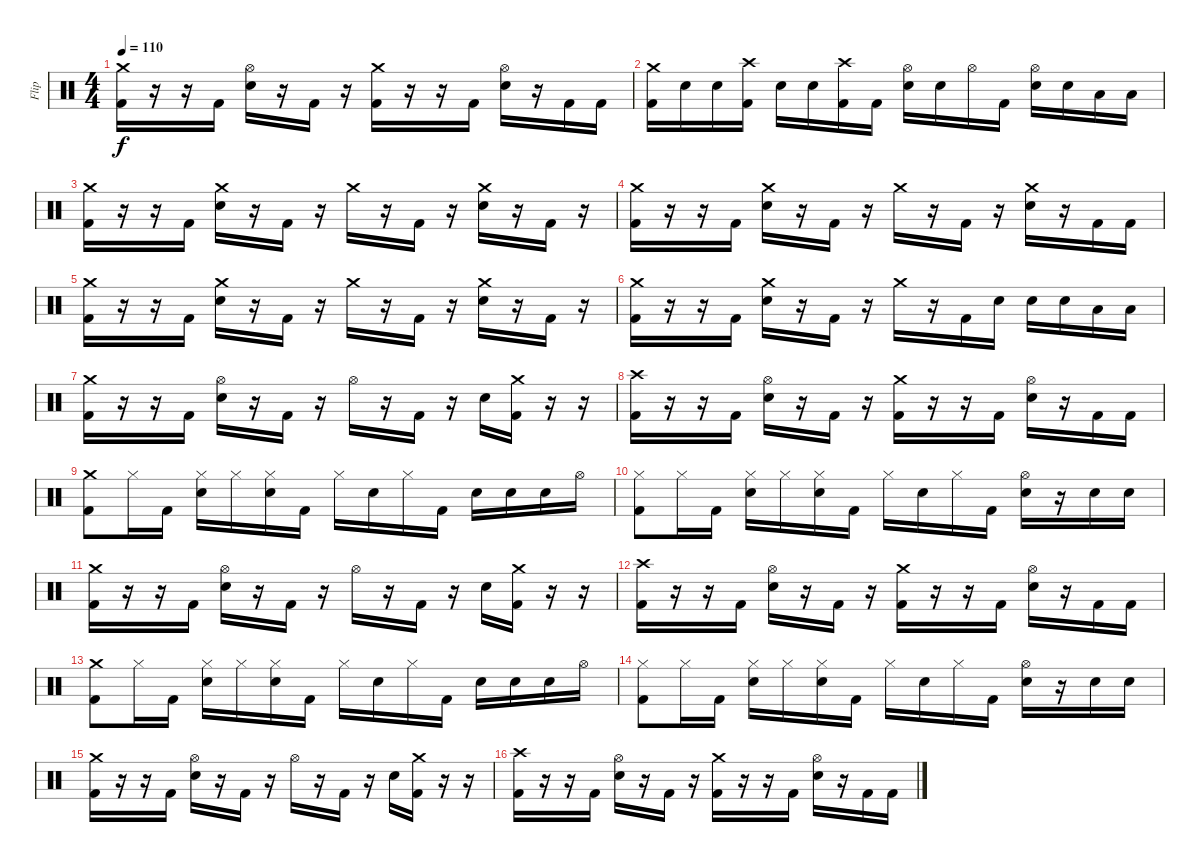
\track ("Flip" "Flip") {instrument percussion}
\staff {score}
\articulation defaults
\ts (4 4)
\tempo 110
\clef neutral
\ks c
("Crash medium (hit)" "Kick (hit) 2").16{dy f} r.16 r.16 "Kick (hit) 2".16 ("Hi-Hat (open)" "Snare (hit) 2").16 r.16 "Kick (hit) 2".16 r.16 ("Crash medium (hit)" "Kick (hit) 2").16 r.16 r.16 "Kick (hit) 2".16 ("Hi-Hat (open)" "Snare (hit) 2").16 r.16 "Kick (hit) 2".16 "Kick (hit) 2".16 |
("Crash medium (hit)" "Kick (hit) 2").16 "Snare (hit) 2".16 "Snare (hit) 2".16 ("Crash high (hit)" "Kick (hit) 2").16 "Snare (hit) 2".16 "Snare (hit) 2".16 ("Crash high (hit)" "Kick (hit) 2").16 "Kick (hit) 2".16 ("Hi-Hat (open)" "Snare (hit) 2").16 "Snare (hit) 2".16 "Hi-Hat (open)".16 "Kick (hit) 2".16 ("Hi-Hat (open)" "Snare (hit) 2").16 "Snare (hit) 2".16 "Low Tom (hit)".16 "Low Tom (hit)".16 |
("Crash medium (hit)" "Kick (hit) 2").16 r.16 r.16 "Kick (hit) 2".16 ("Crash medium (hit)" "Snare (hit) 2").16 r.16 "Kick (hit) 2".16 r.16 "Crash medium (hit)".16 r.16 "Kick (hit) 2".16 r.16 ("Crash medium (hit)" "Snare (hit) 2").16 r.16 "Kick (hit) 2".16 r.16 |
("Crash medium (hit)" "Kick (hit) 2").16 r.16 r.16 "Kick (hit) 2".16 ("Crash medium (hit)" "Snare (hit) 2").16 r.16 "Kick (hit) 2".16 r.16 "Crash medium (hit)".16 r.16 "Kick (hit) 2".16 r.16 ("Crash medium (hit)" "Snare (hit) 2").16 r.16 "Kick (hit) 2".16 "Kick (hit) 2".16 |
("Crash medium (hit)" "Kick (hit) 2").16 r.16 r.16 "Kick (hit) 2".16 ("Crash medium (hit)" "Snare (hit) 2").16 r.16 "Kick (hit) 2".16 r.16 "Crash medium (hit)".16 r.16 "Kick (hit) 2".16 r.16 ("Crash medium (hit)" "Snare (hit) 2").16 r.16 "Kick (hit) 2".16 r.16 |
("Crash medium (hit)" "Kick (hit) 2").16 r.16 r.16 "Kick (hit) 2".16 ("Crash medium (hit)" "Snare (hit) 2").16 r.16 "Kick (hit) 2".16 r.16 "Crash medium (hit)".16 r.16 "Kick (hit) 2".16 "Snare (hit) 2".16 "Snare (hit) 2".16 "Snare (hit) 2".16 "Low Tom (hit)".16 "Low Tom (hit)".16 |
("Crash medium (hit)" "Kick (hit) 2").16 r.16 r.16 "Kick (hit) 2".16 ("Hi-Hat (open)" "Snare (hit) 2").16 r.16 "Kick (hit) 2".16 r.16 "Hi-Hat (open)".16 r.16 "Kick (hit) 2".16 r.16 "Snare (hit) 2".16 ("Crash medium (hit)" "Kick (hit) 2").16 r.16 r.16 |
("Crash high (hit)" "Kick (hit) 2").16 r.16 r.16 "Kick (hit) 2".16 ("Hi-Hat (open)" "Snare (hit) 2").16 r.16 "Kick (hit) 2".16 r.16 ("Crash medium (hit)" "Kick (hit) 2").16 r.16 r.16 "Kick (hit) 2".16 ("Hi-Hat (open)" "Snare (hit) 2").16 r.16 "Kick (hit) 2".16 "Kick (hit) 2".16 |
("Crash medium (hit)" "Kick (hit) 2").8 "Hi-Hat (closed)".16 "Kick (hit) 2".16 ("Hi-Hat (closed)" "Snare (hit) 2").16 "Hi-Hat (closed)".16 ("Hi-Hat (closed)" "Snare (hit) 2").16 "Kick (hit) 2".16 "Hi-Hat (closed)".16 "Snare (hit) 2".16 "Hi-Hat (closed)".16 "Kick (hit) 2".16 "Snare (hit) 2".16 "Snare (hit) 2".16 "Snare (hit) 2".16 "Hi-Hat (open)".16 |
("Hi-Hat (closed)" "Kick (hit) 2").8 "Hi-Hat (closed)".16 "Kick (hit) 2".16 ("Hi-Hat (closed)" "Snare (hit) 2").16 "Hi-Hat (closed)".16 ("Hi-Hat (closed)" "Snare (hit) 2").16 "Kick (hit) 2".16 "Hi-Hat (closed)".16 "Snare (hit) 2".16 "Hi-Hat (closed)".16 "Kick (hit) 2".16 ("Hi-Hat (open)" "Snare (hit) 2").16 r.16 "Snare (hit) 2".16 "Snare (hit) 2".16 |
("Crash medium (hit)" "Kick (hit) 2").16 r.16 r.16 "Kick (hit) 2".16 ("Hi-Hat (open)" "Snare (hit) 2").16 r.16 "Kick (hit) 2".16 r.16 "Hi-Hat (open)".16 r.16 "Kick (hit) 2".16 r.16 "Snare (hit) 2".16 ("Crash medium (hit)" "Kick (hit) 2").16 r.16 r.16 |
("Crash high (hit)" "Kick (hit) 2").16 r.16 r.16 "Kick (hit) 2".16 ("Hi-Hat (open)" "Snare (hit) 2").16 r.16 "Kick (hit) 2".16 r.16 ("Crash medium (hit)" "Kick (hit) 2").16 r.16 r.16 "Kick (hit) 2".16 ("Hi-Hat (open)" "Snare (hit) 2").16 r.16 "Kick (hit) 2".16 "Kick (hit) 2".16 |
("Crash medium (hit)" "Kick (hit) 2").8 "Hi-Hat (closed)".16 "Kick (hit) 2".16 ("Hi-Hat (closed)" "Snare (hit) 2").16 "Hi-Hat (closed)".16 ("Hi-Hat (closed)" "Snare (hit) 2").16 "Kick (hit) 2".16 "Hi-Hat (closed)".16 "Snare (hit) 2".16 "Hi-Hat (closed)".16 "Kick (hit) 2".16 "Snare (hit) 2".16 "Snare (hit) 2".16 "Snare (hit) 2".16 "Hi-Hat (open)".16 |
("Hi-Hat (closed)" "Kick (hit) 2").8 "Hi-Hat (closed)".16 "Kick (hit) 2".16 ("Hi-Hat (closed)" "Snare (hit) 2").16 "Hi-Hat (closed)".16 ("Hi-Hat (closed)" "Snare (hit) 2").16 "Kick (hit) 2".16 "Hi-Hat (closed)".16 "Snare (hit) 2".16 "Hi-Hat (closed)".16 "Kick (hit) 2".16 ("Hi-Hat (open)" "Snare (hit) 2").16 r.16 "Snare (hit) 2".16 "Snare (hit) 2".16 |
("Crash medium (hit)" "Kick (hit) 2").16 r.16 r.16 "Kick (hit) 2".16 ("Hi-Hat (open)" "Snare (hit) 2").16 r.16 "Kick (hit) 2".16 r.16 "Hi-Hat (open)".16 r.16 "Kick (hit) 2".16 r.16 "Snare (hit) 2".16 ("Crash medium (hit)" "Kick (hit) 2").16 r.16 r.16 |
("Crash high (hit)" "Kick (hit) 2").16 r.16 r.16 "Kick (hit) 2".16 ("Hi-Hat (open)" "Snare (hit) 2").16 r.16 "Kick (hit) 2".16 r.16 ("Crash medium (hit)" "Kick (hit) 2").16 r.16 r.16 "Kick (hit) 2".16 ("Hi-Hat (open)" "Snare (hit) 2").16 r.16 "Kick (hit) 2".16 "Kick (hit) 2".16
